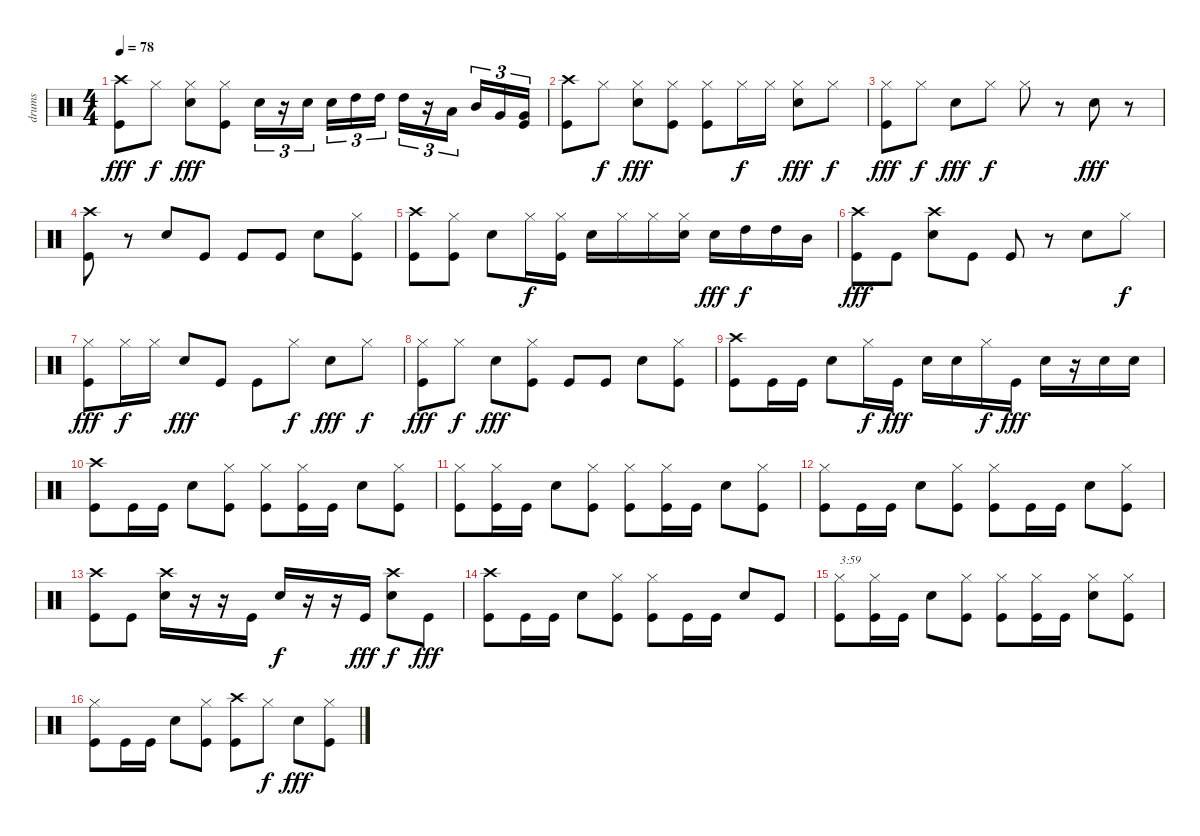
\track ("drums" "drums") {instrument percussion}
\staff {score}
\articulation defaults
\ts (4 4)
\tempo 78
\clef neutral
\ks c
("Crash high (hit)" "Kick (hit)").8{txt " " dy fff} "Hi-Hat (closed)".8{dy f} ("Electric Snare (hit)" "Hi-Hat (closed)").8{dy fff} ("Hi-Hat (closed)" "Kick (hit)").8 "Electric Snare (hit)".16{tu (3 2)} r.16{tu (3 2)} "Electric Snare (hit)".16{tu (3 2)} "Electric Snare (hit)".16{tu (3 2)} "High Tom (hit)".16{tu (3 2)} "High Tom (hit)".16{tu (3 2)} "High Tom (hit)".16{tu (3 2)} r.16{tu (3 2)} "Low Tom (hit)".16{tu (3 2)} "Mid Tom (hit)".16{tu (3 2)} "Very Low Tom (hit)".16{tu (3 2)} ("Very Low Tom (hit)" "Kick (hit)").16{tu (3 2)} |
("Crash high (hit)" "Kick (hit)").8{txt " "} "Hi-Hat (closed)".8{dy f} ("Electric Snare (hit)" "Hi-Hat (closed)").8{dy fff} ("Hi-Hat (closed)" "Kick (hit)").8 ("Hi-Hat (closed)" "Kick (hit)").8 "Hi-Hat (closed)".16{dy f} "Hi-Hat (closed)".16 ("Electric Snare (hit)" "Hi-Hat (closed)").8{dy fff} "Hi-Hat (closed)".8{dy f} |
("Hi-Hat (closed)" "Kick (hit)").8{txt " " dy fff} "Hi-Hat (closed)".8{dy f} "Electric Snare (hit)".8{dy fff} "Hi-Hat (closed)".8{dy f} "Hi-Hat (closed)".8 r.8 "Electric Snare (hit)".8{dy fff} r.8 |
("Crash high (hit)" "Kick (hit)").8{txt " "} r.8 "Electric Snare (hit)".8 "Kick (hit)".8 "Kick (hit)".8 "Kick (hit)".8 "Electric Snare (hit)".8 ("Hi-Hat (closed)" "Kick (hit)").8 |
("Crash high (hit)" "Kick (hit)").8{txt " "} ("Hi-Hat (closed)" "Kick (hit)").8 "Electric Snare (hit)".8 "Hi-Hat (closed)".16{dy f} ("Hi-Hat (closed)" "Kick (hit)").16 "Electric Snare (hit)".16 "Hi-Hat (closed)".16 "Hi-Hat (closed)".16 ("Electric Snare (hit)" "Hi-Hat (closed)").16 "Electric Snare (hit)".16{dy fff} "High Tom (hit)".16{dy f} "High Tom (hit)".16 "Mid Tom (hit)".16 |
("Crash high (hit)" "Kick (hit)").8{txt " " dy fff} "Kick (hit)".8 ("Crash high (hit)" "Electric Snare (hit)").8 "Kick (hit)".8 "Kick (hit)".8 r.8 "Electric Snare (hit)".8 "Hi-Hat (closed)".8{dy f} |
("Hi-Hat (closed)" "Kick (hit)").8{txt " " dy fff} "Hi-Hat (closed)".16{dy f} "Hi-Hat (closed)".16 "Electric Snare (hit)".8{dy fff} "Kick (hit)".8 "Kick (hit)".8 "Hi-Hat (closed)".8{dy f} "Electric Snare (hit)".8{dy fff} "Hi-Hat (closed)".8{dy f} |
("Hi-Hat (closed)" "Kick (hit)").8{txt " " dy fff} "Hi-Hat (closed)".8{dy f} "Electric Snare (hit)".8{dy fff} ("Hi-Hat (closed)" "Kick (hit)").8 "Kick (hit)".8 "Kick (hit)".8 "Electric Snare (hit)".8 ("Hi-Hat (closed)" "Kick (hit)").8 |
("Crash high (hit)" "Kick (hit)").8{txt " "} "Kick (hit)".16 "Kick (hit)".16 "Electric Snare (hit)".8 "Hi-Hat (closed)".16{dy f} "Kick (hit)".16{dy fff} "Electric Snare (hit)".16 "Electric Snare (hit)".16 "Hi-Hat (closed)".16{dy f} "Kick (hit)".16{dy fff} "Electric Snare (hit)".16 r.16 "Electric Snare (hit)".16 "Electric Snare (hit)".16 |
("Crash high (hit)" "Kick (hit)").8{txt " "} "Kick (hit)".16 "Kick (hit)".16 "Electric Snare (hit)".8 ("Hi-Hat (closed)" "Kick (hit)").8 ("Hi-Hat (closed)" "Kick (hit)").8 ("Hi-Hat (closed)" "Kick (hit)").16 "Kick (hit)".16 "Electric Snare (hit)".8 ("Hi-Hat (closed)" "Kick (hit)").8 |
("Hi-Hat (closed)" "Kick (hit)").8{txt " "} ("Hi-Hat (closed)" "Kick (hit)").16 "Kick (hit)".16 "Electric Snare (hit)".8 ("Hi-Hat (closed)" "Kick (hit)").8 ("Hi-Hat (closed)" "Kick (hit)").8 ("Hi-Hat (closed)" "Kick (hit)").16 "Kick (hit)".16 "Electric Snare (hit)".8 ("Hi-Hat (closed)" "Kick (hit)").8 |
("Hi-Hat (closed)" "Kick (hit)").8{txt " "} "Kick (hit)".16 "Kick (hit)".16 "Electric Snare (hit)".8 ("Hi-Hat (closed)" "Kick (hit)").8 ("Hi-Hat (closed)" "Kick (hit)").8 "Kick (hit)".16 "Kick (hit)".16 "Electric Snare (hit)".8 ("Hi-Hat (closed)" "Kick (hit)").8 |
("Crash high (hit)" "Kick (hit)").8{txt " "} "Kick (hit)".8 ("Crash high (hit)" "Electric Snare (hit)").16 r.16 r.16 "Kick (hit)".16 "Electric Snare (hit)".16{dy f} r.16 r.16 "Kick (hit)".16{dy fff} ("Crash high (hit)" "Electric Snare (hit)").8{dy f} "Kick (hit)".8{dy fff} |
("Crash high (hit)" "Kick (hit)").8{txt " "} "Kick (hit)".16 "Kick (hit)".16 "Electric Snare (hit)".8 ("Hi-Hat (closed)" "Kick (hit)").8 ("Hi-Hat (closed)" "Kick (hit)").8 "Kick (hit)".16 "Kick (hit)".16 "Electric Snare (hit)".8 "Kick (hit)".8 |
("Hi-Hat (closed)" "Kick (hit)").8{txt "3:59"} ("Hi-Hat (closed)" "Kick (hit)").16 "Kick (hit)".16 "Electric Snare (hit)".8 ("Hi-Hat (closed)" "Kick (hit)").8 ("Hi-Hat (closed)" "Kick (hit)").8 ("Hi-Hat (closed)" "Kick (hit)").16 "Kick (hit)".16 ("Electric Snare (hit)" "Hi-Hat (closed)").8 ("Hi-Hat (closed)" "Kick (hit)").8 |
("Hi-Hat (closed)" "Kick (hit)").8{txt " "} "Kick (hit)".16 "Kick (hit)".16 "Electric Snare (hit)".8 ("Hi-Hat (closed)" "Kick (hit)").8 ("Crash high (hit)" "Kick (hit)").8 "Hi-Hat (closed)".8{dy f} "Electric Snare (hit)".8{dy fff} ("Hi-Hat (closed)" "Kick (hit)").8
